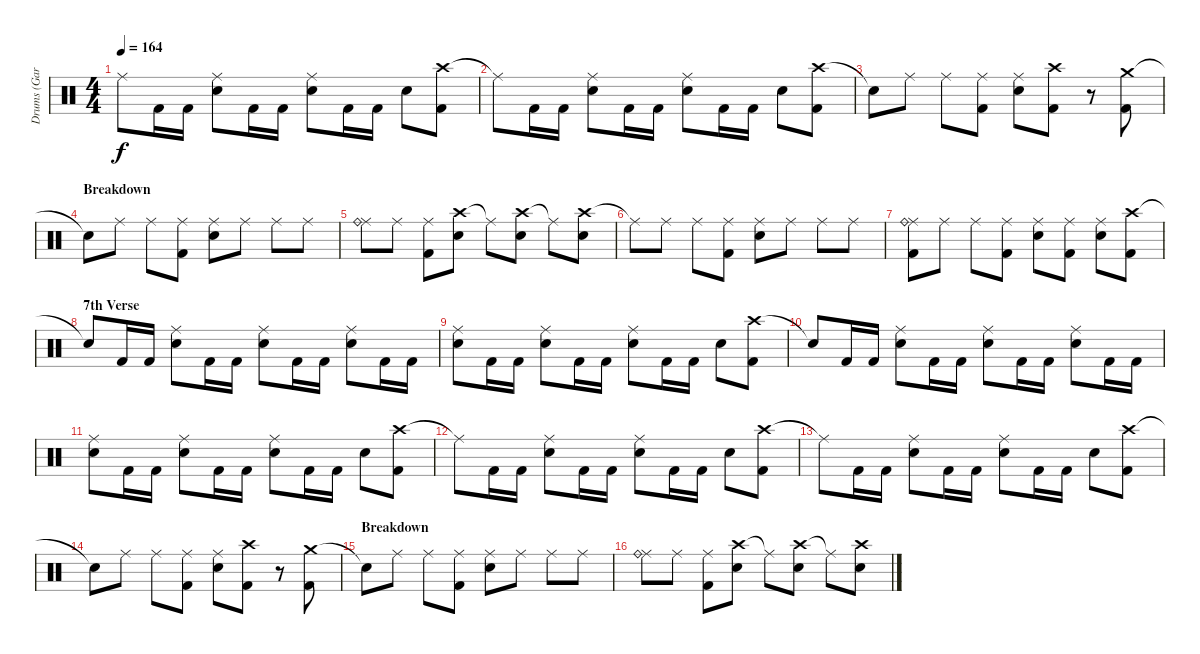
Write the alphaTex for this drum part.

\track ("Drums (Gar Samuelson)" "Drums (Gar") {instrument percussion}
\staff {score}
\articulation defaults
\ts (4 4)
\tempo 164
\clef neutral
\ks c "Ride (middle)"{t}.8{dy f} "Kick (hit) 2".16 "Kick (hit) 2".16
("Ride (middle)" "Snare (hit) 2").8 "Kick (hit) 2".16 "Kick (hit) 2".16 ("Ride (middle)" "Snare (hit) 2").8 "Kick (hit) 2".16 "Kick (hit) 2".16 "Snare (hit) 2".8 ("Crash high (hit)" "Kick (hit) 2").8 |
"Ride (middle)"{t}.8 "Kick (hit) 2".16 "Kick (hit) 2".16 ("Ride (middle)" "Snare (hit) 2").8 "Kick (hit) 2".16 "Kick (hit) 2".16 ("Ride (middle)" "Snare (hit) 2").8 "Kick (hit) 2".16 "Kick (hit) 2".16 "Snare (hit) 2".8 ("Crash high (hit)" "Kick (hit) 2").8 |
"Snare (hit)"{t}.8 "Ride (middle)".8 "Ride (middle)".8 ("Ride (middle)" "Kick (hit) 2").8 ("Ride (middle)" "Snare (hit) 2").8 ("Crash high (hit)" "Kick (hit) 2").8 r.8 ("Crash medium (hit)" "Kick (hit) 2").8 |
\section ("" "Breakdown")
"Snare (hit)"{t}.8 "Ride (middle)".8 "Ride (middle)".8 ("Ride (middle)" "Kick (hit) 2").8 ("Ride (middle)" "Snare (hit) 2").8 "Ride (middle)".8 "Ride (middle)".8 "Ride (middle)".8 |
("Ride (middle)" "Ride (bell)").8 "Ride (middle)".8 ("Ride (middle)" "Kick (hit) 2").8 ("Crash high (hit)" "Snare (hit) 2").8 "Ride (middle)"{t}.8 ("Crash high (hit)" "Snare (hit) 2").8 "Ride (middle)"{t}.8 ("Crash high (hit)" "Snare (hit) 2").8 |
"Ride (middle)"{t}.8 "Ride (middle)".8 "Ride (middle)".8 ("Ride (middle)" "Kick (hit) 2").8 ("Ride (middle)" "Snare (hit) 2").8 "Ride (middle)".8 "Ride (middle)".8 "Ride (middle)".8 |
("Ride (middle)" "Ride (bell)" "Kick (hit) 2").8 "Ride (middle)".8 "Ride (middle)".8 ("Ride (middle)" "Kick (hit) 2").8 ("Ride (middle)" "Snare (hit) 2").8 ("Ride (middle)" "Kick (hit) 2").8 ("Ride (middle)" "Snare (hit) 2").8 ("Crash high (hit)" "Kick (hit) 2").8 |
\section ("" "7th Verse")
"Snare (hit)"{t}.8 "Kick (hit) 2".16 "Kick (hit) 2".16 ("Ride (middle)" "Snare (hit) 2").8 "Kick (hit) 2".16 "Kick (hit) 2".16 ("Ride (middle)" "Snare (hit) 2").8 "Kick (hit) 2".16 "Kick (hit) 2".16 ("Ride (middle)" "Snare (hit) 2").8 "Kick (hit) 2".16 "Kick (hit) 2".16 |
("Ride (middle)" "Snare (hit) 2").8 "Kick (hit) 2".16 "Kick (hit) 2".16 ("Ride (middle)" "Snare (hit) 2").8 "Kick (hit) 2".16 "Kick (hit) 2".16 ("Ride (middle)" "Snare (hit) 2").8 "Kick (hit) 2".16 "Kick (hit) 2".16 "Snare (hit) 2".8 ("Crash high (hit)" "Kick (hit) 2").8 |
"Snare (hit)"{t}.8 "Kick (hit) 2".16 "Kick (hit) 2".16 ("Ride (middle)" "Snare (hit) 2").8 "Kick (hit) 2".16 "Kick (hit) 2".16 ("Ride (middle)" "Snare (hit) 2").8 "Kick (hit) 2".16 "Kick (hit) 2".16 ("Ride (middle)" "Snare (hit) 2").8 "Kick (hit) 2".16 "Kick (hit) 2".16 |
("Ride (middle)" "Snare (hit) 2").8 "Kick (hit) 2".16 "Kick (hit) 2".16 ("Ride (middle)" "Snare (hit) 2").8 "Kick (hit) 2".16 "Kick (hit) 2".16 ("Ride (middle)" "Snare (hit) 2").8 "Kick (hit) 2".16 "Kick (hit) 2".16 "Snare (hit) 2".8 ("Crash high (hit)" "Kick (hit) 2").8 |
"Ride (middle)"{t}.8 "Kick (hit) 2".16 "Kick (hit) 2".16 ("Ride (middle)" "Snare (hit) 2").8 "Kick (hit) 2".16 "Kick (hit) 2".16 ("Ride (middle)" "Snare (hit) 2").8 "Kick (hit) 2".16 "Kick (hit) 2".16 "Snare (hit) 2".8 ("Crash high (hit)" "Kick (hit) 2").8 |
"Ride (middle)"{t}.8 "Kick (hit) 2".16 "Kick (hit) 2".16 ("Ride (middle)" "Snare (hit) 2").8 "Kick (hit) 2".16 "Kick (hit) 2".16 ("Ride (middle)" "Snare (hit) 2").8 "Kick (hit) 2".16 "Kick (hit) 2".16 "Snare (hit) 2".8 ("Crash high (hit)" "Kick (hit) 2").8 |
"Snare (hit)"{t}.8 "Ride (middle)".8 "Ride (middle)".8 ("Ride (middle)" "Kick (hit) 2").8 ("Ride (middle)" "Snare (hit) 2").8 ("Crash high (hit)" "Kick (hit) 2").8 r.8 ("Crash medium (hit)" "Kick (hit) 2").8 |
\section ("" "Breakdown")
"Snare (hit)"{t}.8 "Ride (middle)".8 "Ride (middle)".8 ("Ride (middle)" "Kick (hit) 2").8 ("Ride (middle)" "Snare (hit) 2").8 "Ride (middle)".8 "Ride (middle)".8 "Ride (middle)".8 |
("Ride (middle)" "Ride (bell)").8 "Ride (middle)".8 ("Ride (middle)" "Kick (hit) 2").8 ("Crash high (hit)" "Snare (hit) 2").8 "Ride (middle)"{t}.8 ("Crash high (hit)" "Snare (hit) 2").8 "Ride (middle)"{t}.8 ("Crash high (hit)" "Snare (hit) 2").8
